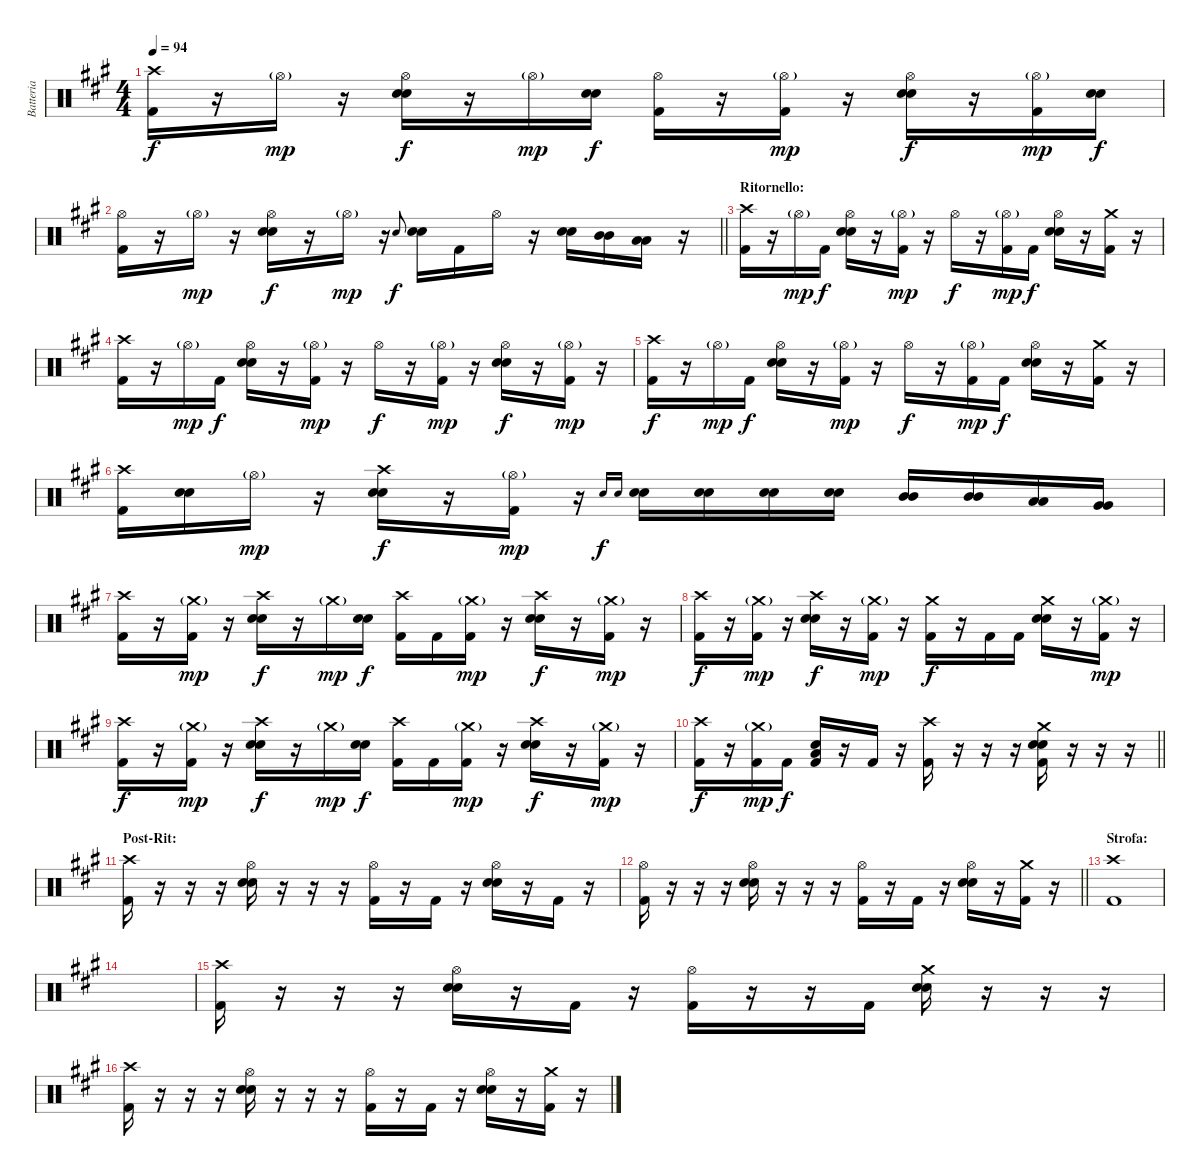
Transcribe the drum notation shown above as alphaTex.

\track ("Batteria" "Batteria") {instrument percussion}
\staff {score}
\articulation defaults
\ts (4 4)
\tempo 94
\clef neutral
\ks a
("Kick (hit) 2" "Crash high (hit)").16{dy f} r.16 "Hi-Hat (open)"{g}.16{dy mp} r.16 ("Snare (hit) 2" "Snare (hit) 2" "Hi-Hat (open)").16{dy f} r.16 "Hi-Hat (open)"{g}.16{dy mp} ("Snare (hit) 2" "Snare (hit) 2").16{dy f} ("Kick (hit) 2" "Hi-Hat (open)").16 r.16 ("Kick (hit) 2" "Hi-Hat (open)"{g}).16{dy mp} r.16 ("Snare (hit) 2" "Snare (hit) 2" "Hi-Hat (open)").16{dy f} r.16 ("Kick (hit) 2" "Hi-Hat (open)"{g}).16{dy mp} ("Snare (hit) 2" "Snare (hit) 2").16{dy f} |
\barLineRight lightlight
("Kick (hit) 2" "Hi-Hat (open)").16 r.16 "Hi-Hat (open)"{g}.16{dy mp} r.16 ("Snare (hit) 2" "Snare (hit) 2" "Hi-Hat (open)").16{dy f} r.16 "Hi-Hat (open)"{g}.16{dy mp} r.16 "Snare (hit) 2".8{gr onbeat dy f} ("Snare (hit) 2" "Snare (hit) 2").16 "Kick (hit) 2".16 "Hi-Hat (open)".16 r.16 ("Snare (hit) 2" "Snare (hit) 2").16 ("Mid Tom (hit)" "Mid Tom (hit)").16 ("Low Tom (hit)" "Low Tom (hit)").16 r.16 |
\section ("" "Ritornello:")
("Kick (hit) 2" "Crash high (hit)").16 r.16 "Hi-Hat (open)"{g}.16{dy mp} "Kick (hit) 2".16{dy f} ("Snare (hit) 2" "Snare (hit) 2" "Hi-Hat (open)").16 r.16 ("Kick (hit) 2" "Hi-Hat (open)"{g}).16{dy mp} r.16 "Hi-Hat (open)".16{dy f} r.16 ("Kick (hit) 2" "Hi-Hat (open)"{g}).16{dy mp} "Kick (hit) 2".16{dy f} ("Snare (hit) 2" "Snare (hit) 2" "Hi-Hat (open)").16 r.16 ("Kick (hit) 2" "Crash medium (hit)").16 r.16 |
("Kick (hit) 2" "Crash high (hit)").16 r.16 "Hi-Hat (open)"{g}.16{dy mp} "Kick (hit) 2".16{dy f} ("Snare (hit) 2" "Snare (hit) 2" "Hi-Hat (open)").16 r.16 ("Kick (hit) 2" "Hi-Hat (open)"{g}).16{dy mp} r.16 "Hi-Hat (open)".16{dy f} r.16 ("Kick (hit) 2" "Hi-Hat (open)"{g}).16{dy mp} r.16 ("Snare (hit) 2" "Snare (hit) 2" "Hi-Hat (open)").16{dy f} r.16 ("Kick (hit) 2" "Hi-Hat (open)"{g}).16{dy mp} r.16 |
("Kick (hit) 2" "Crash high (hit)").16{dy f} r.16 "Hi-Hat (open)"{g}.16{dy mp} "Kick (hit) 2".16{dy f} ("Snare (hit) 2" "Snare (hit) 2" "Hi-Hat (open)").16 r.16 ("Kick (hit) 2" "Hi-Hat (open)"{g}).16{dy mp} r.16 "Hi-Hat (open)".16{dy f} r.16 ("Kick (hit) 2" "Hi-Hat (open)"{g}).16{dy mp} "Kick (hit) 2".16{dy f} ("Snare (hit) 2" "Snare (hit) 2" "Hi-Hat (open)").16 r.16 ("Kick (hit) 2" "Crash medium (hit)").16 r.16 |
("Kick (hit) 2" "Crash high (hit)").16 ("Snare (hit) 2" "Snare (hit) 2").16 "Hi-Hat (open)"{g}.16{dy mp} r.16 ("Snare (hit) 2" "Snare (hit) 2" "Crash high (hit)").16{dy f} r.16 ("Kick (hit) 2" "Hi-Hat (open)"{g}).16{dy mp} r.16 "Snare (hit) 2".16{gr onbeat dy f} "Snare (hit) 2".16{gr onbeat} ("Snare (hit) 2" "Snare (hit) 2").16 ("Snare (hit) 2" "Snare (hit) 2").16 ("Snare (hit) 2" "Snare (hit) 2").16 ("Snare (hit) 2" "Snare (hit) 2").16 ("Mid Tom (hit)" "Mid Tom (hit)").16 ("Mid Tom (hit)" "Mid Tom (hit)").16 ("Low Tom (hit)" "Low Tom (hit)").16 ("Very Low Tom (hit)" "Very Low Tom (hit)").16 |
("Kick (hit) 2" "Crash high (hit)").16 r.16 ("Kick (hit) 2" "Crash medium (hit)"{g}).16{dy mp} r.16 ("Snare (hit) 2" "Snare (hit) 2" "Crash high (hit)").16{dy f} r.16 "Crash medium (hit)"{g}.16{dy mp} ("Snare (hit) 2" "Snare (hit) 2").16{dy f} ("Kick (hit) 2" "Crash high (hit)").16 "Kick (hit) 2".16 ("Kick (hit) 2" "Crash medium (hit)"{g}).16{dy mp} r.16 ("Snare (hit) 2" "Snare (hit) 2" "Crash high (hit)").16{dy f} r.16 ("Kick (hit) 2" "Crash medium (hit)"{g}).16{dy mp} r.16 |
("Kick (hit) 2" "Crash high (hit)").16{dy f} r.16 ("Kick (hit) 2" "Crash medium (hit)"{g}).16{dy mp} r.16 ("Snare (hit) 2" "Snare (hit) 2" "Crash high (hit)").16{dy f} r.16 ("Kick (hit) 2" "Crash medium (hit)"{g}).16{dy mp} r.16 ("Kick (hit) 2" "Crash medium (hit)").16{dy f} r.16 "Kick (hit) 2".16 "Kick (hit) 2".16 ("Snare (hit) 2" "Snare (hit) 2" "Crash medium (hit)").16 r.16 ("Kick (hit) 2" "Crash medium (hit)"{g}).16{dy mp} r.16 |
("Kick (hit) 2" "Crash high (hit)").16{dy f} r.16 ("Kick (hit) 2" "Crash medium (hit)"{g}).16{dy mp} r.16 ("Snare (hit) 2" "Snare (hit) 2" "Crash high (hit)").16{dy f} r.16 "Crash medium (hit)"{g}.16{dy mp} ("Snare (hit) 2" "Snare (hit) 2").16{dy f} ("Kick (hit) 2" "Crash high (hit)").16 "Kick (hit) 2".16 ("Kick (hit) 2" "Crash medium (hit)"{g}).16{dy mp} r.16 ("Snare (hit) 2" "Snare (hit) 2" "Crash high (hit)").16{dy f} r.16 ("Kick (hit) 2" "Crash medium (hit)"{g}).16{dy mp} r.16 |
\barLineRight lightlight
("Kick (hit) 2" "Crash high (hit)").16{dy f} r.16 ("Kick (hit) 2" "Crash medium (hit)"{g}).16{dy mp} "Kick (hit) 2".16{dy f} ("Kick (hit) 2" "Snare (hit) 2" "Low Floor Tom (hit)").16 r.16 "Kick (hit) 2".16 r.16 ("Kick (hit) 2" "Crash high (hit)").16 r.16 r.16 r.16 ("Kick (hit) 2" "Snare (hit) 2" "Snare (hit) 2" "Crash medium (hit)").16 r.16 r.16 r.16 |
\section ("" "Post-Rit:")
("Kick (hit) 2" "Crash high (hit)").16 r.16 r.16 r.16 ("Snare (hit) 2" "Snare (hit) 2" "Hi-Hat (open)").16 r.16 r.16 r.16 ("Kick (hit) 2" "Hi-Hat (open)").16 r.16 "Kick (hit) 2".16 r.16 ("Snare (hit) 2" "Snare (hit) 2" "Hi-Hat (open)").16 r.16 "Kick (hit) 2".16 r.16 |
\barLineRight lightlight
("Kick (hit) 2" "Hi-Hat (open)").16 r.16 r.16 r.16 ("Snare (hit) 2" "Snare (hit) 2" "Hi-Hat (open)").16 r.16 r.16 r.16 ("Kick (hit) 2" "Hi-Hat (open)").16 r.16 "Kick (hit) 2".16 r.16 ("Snare (hit) 2" "Snare (hit) 2" "Hi-Hat (open)").16 r.16 ("Kick (hit) 2" "Crash medium (hit)").16 r.16 |
\section ("" "Strofa:")
("Kick (hit) 2" "Crash high (hit)").1 |
|
("Kick (hit) 2" "Crash high (hit)").16 r.16 r.16 r.16 ("Snare (hit) 2" "Snare (hit) 2" "Hi-Hat (open)").16 r.16 "Kick (hit) 2".16 r.16 ("Kick (hit) 2" "Hi-Hat (open)").16 r.16 r.16 "Kick (hit) 2".16 ("Snare (hit) 2" "Snare (hit) 2" "Crash medium (hit)").16 r.16 r.16 r.16 |
("Kick (hit) 2" "Crash high (hit)").16 r.16 r.16 r.16 ("Snare (hit) 2" "Snare (hit) 2" "Hi-Hat (open)").16 r.16 r.16 r.16 ("Kick (hit) 2" "Hi-Hat (open)").16 r.16 "Kick (hit) 2".16 r.16 ("Snare (hit) 2" "Snare (hit) 2" "Hi-Hat (open)").16 r.16 ("Kick (hit) 2" "Crash medium (hit)").16 r.16
